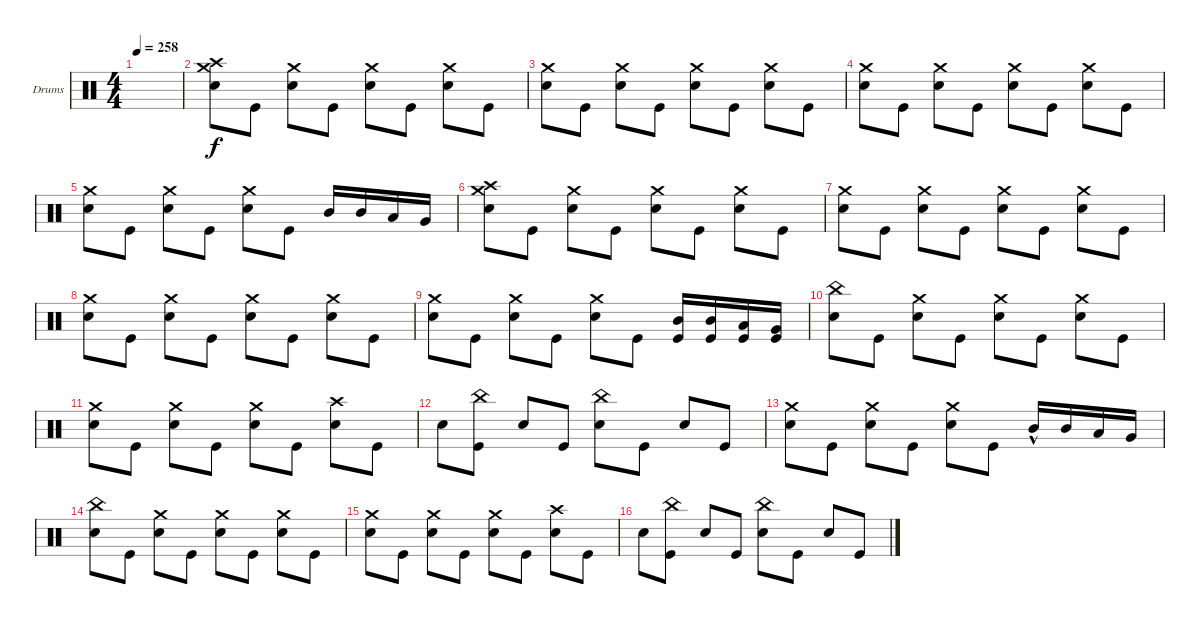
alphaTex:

\defaultSystemsLayout 4
\bracketExtendMode groupsimilarinstruments
\firstSystemTrackNameOrientation horizontal
\otherSystemsTrackNameOrientation horizontal
\track ("Drumkit" "Drums") {instrument percussion}
\staff {score}
\articulation defaults
\ts (4 4)
\tempo 258
\clef neutral
\ks c
|
("Crash high (hit)" "Snare (hit) 2" "Crash medium (hit)").8 "Kick (hit)".8 ("Snare (hit) 2" "Crash medium (hit)").8 "Kick (hit)".8 ("Snare (hit) 2" "Crash medium (hit)").8 "Kick (hit)".8 ("Snare (hit) 2" "Crash medium (hit)").8 "Kick (hit)".8 |
("Snare (hit) 2" "Crash medium (hit)").8 "Kick (hit)".8 ("Snare (hit) 2" "Crash medium (hit)").8 "Kick (hit)".8 ("Snare (hit) 2" "Crash medium (hit)").8 "Kick (hit)".8 ("Snare (hit) 2" "Crash medium (hit)").8 "Kick (hit)".8 |
("Snare (hit) 2" "Crash medium (hit)").8 "Kick (hit)".8 ("Snare (hit) 2" "Crash medium (hit)").8 "Kick (hit)".8 ("Snare (hit) 2" "Crash medium (hit)").8 "Kick (hit)".8 ("Snare (hit) 2" "Crash medium (hit)").8 "Kick (hit)".8 |
("Snare (hit) 2" "Crash medium (hit)").8 "Kick (hit)".8 ("Snare (hit) 2" "Crash medium (hit)").8 "Kick (hit)".8 ("Snare (hit) 2" "Crash medium (hit)").8 "Kick (hit)".8 "Mid Tom (hit)".16 "Mid Tom (hit)".16 "Low Tom (hit)".16 "Very Low Tom (hit)".16 |
("Crash high (hit)" "Snare (hit) 2" "Crash medium (hit)").8 "Kick (hit)".8 ("Snare (hit) 2" "Crash medium (hit)").8 "Kick (hit)".8 ("Snare (hit) 2" "Crash medium (hit)").8 "Kick (hit)".8 ("Snare (hit) 2" "Crash medium (hit)").8 "Kick (hit)".8 |
("Snare (hit) 2" "Crash medium (hit)").8 "Kick (hit)".8 ("Snare (hit) 2" "Crash medium (hit)").8 "Kick (hit)".8 ("Snare (hit) 2" "Crash medium (hit)").8 "Kick (hit)".8 ("Snare (hit) 2" "Crash medium (hit)").8 "Kick (hit)".8 |
("Snare (hit) 2" "Crash medium (hit)").8 "Kick (hit)".8 ("Snare (hit) 2" "Crash medium (hit)").8 "Kick (hit)".8 ("Snare (hit) 2" "Crash medium (hit)").8 "Kick (hit)".8 ("Snare (hit) 2" "Crash medium (hit)").8 "Kick (hit)".8 |
("Snare (hit) 2" "Crash medium (hit)").8 "Kick (hit)".8 ("Snare (hit) 2" "Crash medium (hit)").8 "Kick (hit)".8 ("Snare (hit) 2" "Crash medium (hit)").8 "Kick (hit)".8 ("Mid Tom (hit)" "Kick (hit)").16 ("Mid Tom (hit)" "Kick (hit)").16 ("Low Tom (hit)" "Kick (hit)").16 ("Very Low Tom (hit)" "Kick (hit)").16 |
("Snare (hit) 2" "China (hit)").8 "Kick (hit)".8 ("Snare (hit) 2" "Crash medium (hit)").8 "Kick (hit)".8 ("Snare (hit) 2" "Crash medium (hit)").8 "Kick (hit)".8 ("Snare (hit) 2" "Crash medium (hit)").8 "Kick (hit)".8 |
("Snare (hit) 2" "Crash medium (hit)").8 "Kick (hit)".8 ("Snare (hit) 2" "Crash medium (hit)").8 "Kick (hit)".8 ("Snare (hit) 2" "Crash medium (hit)").8 "Kick (hit)".8 ("Snare (hit) 2" "Crash high (hit)").8 "Kick (hit)".8 |
"Snare (hit) 2".8 ("Kick (hit)" "China (hit)").8 "Snare (hit) 2".8 "Kick (hit)".8 ("Snare (hit) 2" "China (hit)").8 "Kick (hit)".8 "Snare (hit) 2".8 "Kick (hit)".8 |
("Snare (hit) 2" "Crash medium (hit)").8 "Kick (hit)".8 ("Snare (hit) 2" "Crash medium (hit)").8 "Kick (hit)".8 ("Snare (hit) 2" "Crash medium (hit)").8 "Kick (hit)".8 "Mid Tom (hit)"{hac}.16 "Mid Tom (hit)".16 "Low Tom (hit)".16 "Very Low Tom (hit)".16 |
("Snare (hit) 2" "China (hit)").8 "Kick (hit)".8 ("Snare (hit) 2" "Crash medium (hit)").8 "Kick (hit)".8 ("Snare (hit) 2" "Crash medium (hit)").8 "Kick (hit)".8 ("Snare (hit) 2" "Crash medium (hit)").8 "Kick (hit)".8 |
("Snare (hit) 2" "Crash medium (hit)").8 "Kick (hit)".8 ("Snare (hit) 2" "Crash medium (hit)").8 "Kick (hit)".8 ("Snare (hit) 2" "Crash medium (hit)").8 "Kick (hit)".8 ("Snare (hit) 2" "Crash high (hit)").8 "Kick (hit)".8 |
"Snare (hit) 2".8 ("Kick (hit)" "China (hit)").8 "Snare (hit) 2".8 "Kick (hit)".8 ("Snare (hit) 2" "China (hit)").8 "Kick (hit)".8 "Snare (hit) 2".8 "Kick (hit)".8
